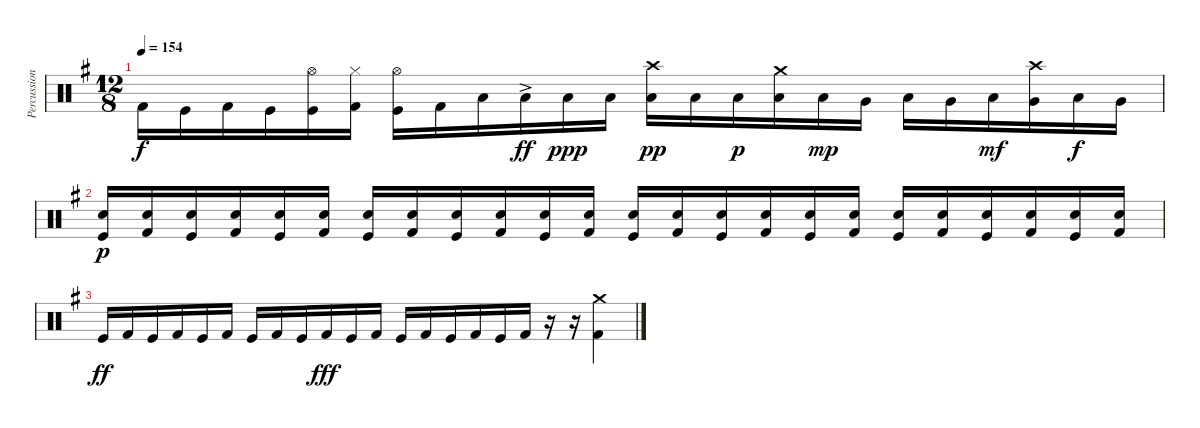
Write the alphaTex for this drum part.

\track ("Percussion" "Percussion") {instrument percussion}
\staff {score}
\articulation defaults
\ts (12 8)
\tempo 154
\clef neutral
\ks eminor "Kick (hit) 2".16{dy f} "Kick (hit)".16 "Kick (hit) 2".16 "Kick (hit)".16
("Kick (hit)" "Hi-Hat (open)").16 ("Kick (hit) 2" "Hi-Hat (closed)").16 ("Kick (hit)" "Hi-Hat (open)").16 "Kick (hit) 2".16 "Low Floor Tom (hit)".16 "Low Floor Tom (hit)"{ac}.16{dy ff} "Low Floor Tom (hit)".16{dy ppp} "Low Floor Tom (hit)".16 ("Low Floor Tom (hit)" "Crash high (hit)").16{dy pp} "Low Floor Tom (hit)".16 "Low Floor Tom (hit)".16{dy p} ("Low Floor Tom (hit)" "Crash medium (hit)").16 "Low Floor Tom (hit)".16{dy mp} "Very Low Tom (hit)".16 "Low Floor Tom (hit)".16 "Very Low Tom (hit)".16 "Low Floor Tom (hit)".16{dy mf} ("Very Low Tom (hit)" "Crash high (hit)").16 "Low Floor Tom (hit)".16{dy f} "Very Low Tom (hit)".16 |
("Kick (hit)" "Snare (hit) 2").16{dy p} ("Kick (hit) 2" "Snare (hit) 2").16 ("Kick (hit)" "Snare (hit) 2").16 ("Kick (hit) 2" "Snare (hit) 2").16 ("Kick (hit)" "Snare (hit) 2").16 ("Kick (hit) 2" "Snare (hit) 2").16 ("Kick (hit)" "Snare (hit) 2").16 ("Kick (hit) 2" "Snare (hit) 2").16 ("Kick (hit)" "Snare (hit) 2").16 ("Kick (hit) 2" "Snare (hit) 2").16 ("Kick (hit)" "Snare (hit) 2").16 ("Kick (hit) 2" "Snare (hit) 2").16 ("Kick (hit)" "Snare (hit) 2").16 ("Kick (hit) 2" "Snare (hit) 2").16 ("Kick (hit)" "Snare (hit) 2").16 ("Kick (hit) 2" "Snare (hit) 2").16 ("Kick (hit)" "Snare (hit) 2").16 ("Kick (hit) 2" "Snare (hit) 2").16 ("Kick (hit)" "Snare (hit) 2").16 ("Kick (hit) 2" "Snare (hit) 2").16 ("Kick (hit)" "Snare (hit) 2").16 ("Kick (hit) 2" "Snare (hit) 2").16 ("Kick (hit)" "Snare (hit) 2").16 ("Kick (hit) 2" "Snare (hit) 2").16 |
"Kick (hit)".16{dy ff} "Kick (hit) 2".16 "Kick (hit)".16 "Kick (hit) 2".16 "Kick (hit)".16 "Kick (hit) 2".16 "Kick (hit)".16 "Kick (hit) 2".16 "Kick (hit)".16 "Kick (hit) 2".16{dy fff} "Kick (hit)".16 "Kick (hit) 2".16 "Kick (hit)".16 "Kick (hit) 2".16 "Kick (hit)".16 "Kick (hit) 2".16 "Kick (hit)".16 "Kick (hit) 2".16 r.16 r.16 ("Kick (hit) 2" "Crash medium (hit)").4
